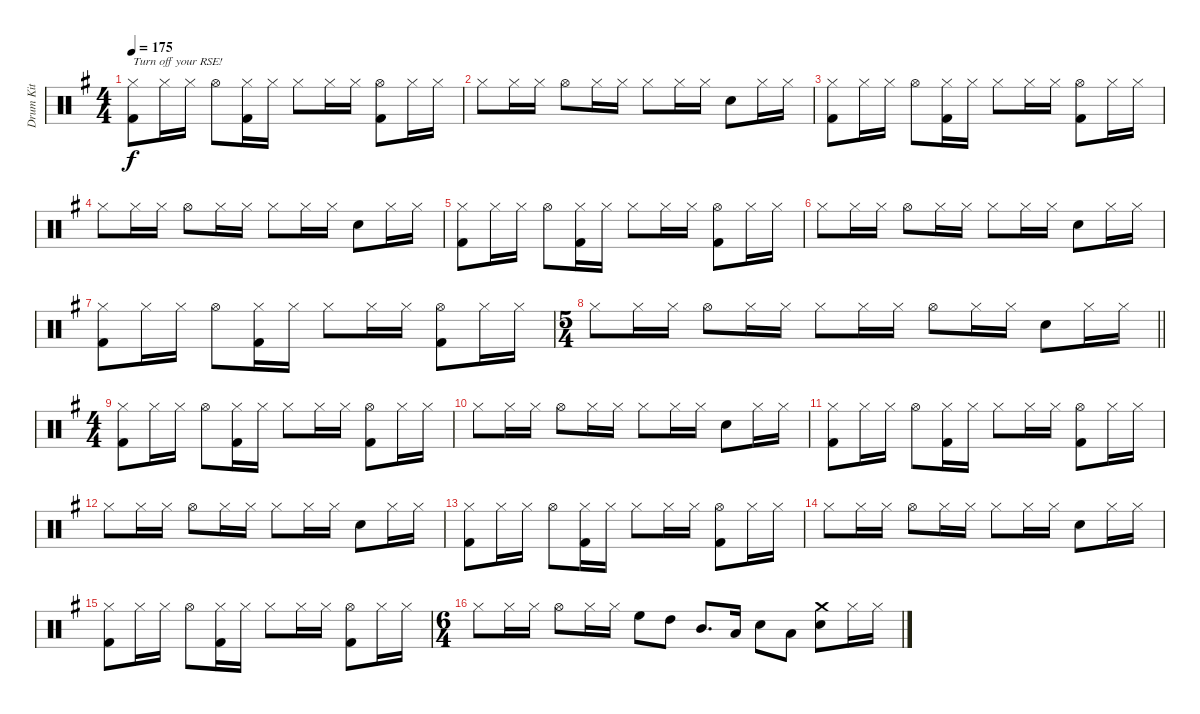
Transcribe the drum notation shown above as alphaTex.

\track ("Drum Kit" "Drum Kit") {instrument percussion}
\staff {score}
\articulation defaults
\ts (4 4)
\tempo 175
\clef neutral
\ks g
("Hi-Hat (closed)" "Kick (hit) 2").8{txt "Turn off your RSE!" dy f} "Hi-Hat (closed)".16 "Hi-Hat (closed)".16 "Hi-Hat (open)".8 ("Hi-Hat (closed)" "Kick (hit) 2").16 "Hi-Hat (closed)".16 "Hi-Hat (closed)".8 "Hi-Hat (closed)".16 "Hi-Hat (closed)".16 ("Hi-Hat (open)" "Kick (hit) 2").8 "Hi-Hat (closed)".16 "Hi-Hat (closed)".16 |
"Hi-Hat (closed)".8 "Hi-Hat (closed)".16 "Hi-Hat (closed)".16 "Hi-Hat (open)".8 "Hi-Hat (closed)".16 "Hi-Hat (closed)".16 "Hi-Hat (closed)".8 "Hi-Hat (closed)".16 "Hi-Hat (closed)".16 "Snare (hit) 2".8 "Hi-Hat (closed)".16 "Hi-Hat (closed)".16 |
("Hi-Hat (closed)" "Kick (hit) 2").8 "Hi-Hat (closed)".16 "Hi-Hat (closed)".16 "Hi-Hat (open)".8 ("Hi-Hat (closed)" "Kick (hit) 2").16 "Hi-Hat (closed)".16 "Hi-Hat (closed)".8 "Hi-Hat (closed)".16 "Hi-Hat (closed)".16 ("Hi-Hat (open)" "Kick (hit) 2").8 "Hi-Hat (closed)".16 "Hi-Hat (closed)".16 |
"Hi-Hat (closed)".8 "Hi-Hat (closed)".16 "Hi-Hat (closed)".16 "Hi-Hat (open)".8 "Hi-Hat (closed)".16 "Hi-Hat (closed)".16 "Hi-Hat (closed)".8 "Hi-Hat (closed)".16 "Hi-Hat (closed)".16 "Snare (hit) 2".8 "Hi-Hat (closed)".16 "Hi-Hat (closed)".16 |
("Hi-Hat (closed)" "Kick (hit) 2").8 "Hi-Hat (closed)".16 "Hi-Hat (closed)".16 "Hi-Hat (open)".8 ("Hi-Hat (closed)" "Kick (hit) 2").16 "Hi-Hat (closed)".16 "Hi-Hat (closed)".8 "Hi-Hat (closed)".16 "Hi-Hat (closed)".16 ("Hi-Hat (open)" "Kick (hit) 2").8 "Hi-Hat (closed)".16 "Hi-Hat (closed)".16 |
"Hi-Hat (closed)".8 "Hi-Hat (closed)".16 "Hi-Hat (closed)".16 "Hi-Hat (open)".8 "Hi-Hat (closed)".16 "Hi-Hat (closed)".16 "Hi-Hat (closed)".8 "Hi-Hat (closed)".16 "Hi-Hat (closed)".16 "Snare (hit) 2".8 "Hi-Hat (closed)".16 "Hi-Hat (closed)".16 |
("Hi-Hat (closed)" "Kick (hit) 2").8 "Hi-Hat (closed)".16 "Hi-Hat (closed)".16 "Hi-Hat (open)".8 ("Hi-Hat (closed)" "Kick (hit) 2").16 "Hi-Hat (closed)".16 "Hi-Hat (closed)".8 "Hi-Hat (closed)".16 "Hi-Hat (closed)".16 ("Hi-Hat (open)" "Kick (hit) 2").8 "Hi-Hat (closed)".16 "Hi-Hat (closed)".16 |
\ts (5 4)
\barLineRight lightlight "Hi-Hat (closed)".8 "Hi-Hat (closed)".16 "Hi-Hat (closed)".16 "Hi-Hat (open)".8 "Hi-Hat (closed)".16 "Hi-Hat (closed)".16 "Hi-Hat (closed)".8 "Hi-Hat (closed)".16 "Hi-Hat (closed)".16 "Hi-Hat (open)".8 "Hi-Hat (closed)".16 "Hi-Hat (closed)".16 "Snare (hit) 2".8 "Hi-Hat (closed)".16 "Hi-Hat (closed)".16
|
\ts (4 4)
("Hi-Hat (closed)" "Kick (hit) 2").8 "Hi-Hat (closed)".16 "Hi-Hat (closed)".16 "Hi-Hat (open)".8 ("Hi-Hat (closed)" "Kick (hit) 2").16 "Hi-Hat (closed)".16 "Hi-Hat (closed)".8 "Hi-Hat (closed)".16 "Hi-Hat (closed)".16 ("Hi-Hat (open)" "Kick (hit) 2").8 "Hi-Hat (closed)".16 "Hi-Hat (closed)".16 |
"Hi-Hat (closed)".8 "Hi-Hat (closed)".16 "Hi-Hat (closed)".16 "Hi-Hat (open)".8 "Hi-Hat (closed)".16 "Hi-Hat (closed)".16 "Hi-Hat (closed)".8 "Hi-Hat (closed)".16 "Hi-Hat (closed)".16 "Snare (hit) 2".8 "Hi-Hat (closed)".16 "Hi-Hat (closed)".16 |
("Hi-Hat (closed)" "Kick (hit) 2").8 "Hi-Hat (closed)".16 "Hi-Hat (closed)".16 "Hi-Hat (open)".8 ("Hi-Hat (closed)" "Kick (hit) 2").16 "Hi-Hat (closed)".16 "Hi-Hat (closed)".8 "Hi-Hat (closed)".16 "Hi-Hat (closed)".16 ("Hi-Hat (open)" "Kick (hit) 2").8 "Hi-Hat (closed)".16 "Hi-Hat (closed)".16 |
"Hi-Hat (closed)".8 "Hi-Hat (closed)".16 "Hi-Hat (closed)".16 "Hi-Hat (open)".8 "Hi-Hat (closed)".16 "Hi-Hat (closed)".16 "Hi-Hat (closed)".8 "Hi-Hat (closed)".16 "Hi-Hat (closed)".16 "Snare (hit) 2".8 "Hi-Hat (closed)".16 "Hi-Hat (closed)".16 |
("Hi-Hat (closed)" "Kick (hit) 2").8 "Hi-Hat (closed)".16 "Hi-Hat (closed)".16 "Hi-Hat (open)".8 ("Hi-Hat (closed)" "Kick (hit) 2").16 "Hi-Hat (closed)".16 "Hi-Hat (closed)".8 "Hi-Hat (closed)".16 "Hi-Hat (closed)".16 ("Hi-Hat (open)" "Kick (hit) 2").8 "Hi-Hat (closed)".16 "Hi-Hat (closed)".16 |
"Hi-Hat (closed)".8 "Hi-Hat (closed)".16 "Hi-Hat (closed)".16 "Hi-Hat (open)".8 "Hi-Hat (closed)".16 "Hi-Hat (closed)".16 "Hi-Hat (closed)".8 "Hi-Hat (closed)".16 "Hi-Hat (closed)".16 "Snare (hit) 2".8 "Hi-Hat (closed)".16 "Hi-Hat (closed)".16 |
("Hi-Hat (closed)" "Kick (hit) 2").8 "Hi-Hat (closed)".16 "Hi-Hat (closed)".16 "Hi-Hat (open)".8 ("Hi-Hat (closed)" "Kick (hit) 2").16 "Hi-Hat (closed)".16 "Hi-Hat (closed)".8 "Hi-Hat (closed)".16 "Hi-Hat (closed)".16 ("Hi-Hat (open)" "Kick (hit) 2").8 "Hi-Hat (closed)".16 "Hi-Hat (closed)".16 |
\ts (6 4)
"Hi-Hat (closed)".8 "Hi-Hat (closed)".16 "Hi-Hat (closed)".16 "Hi-Hat (open)".8 "Hi-Hat (closed)".16 "Hi-Hat (closed)".16 "High Floor Tom (hit)".8 "High Tom (hit)".8 "Mid Tom (hit)".8{d} "Low Tom (hit)".16 "Snare (hit) 2".8 "Low Tom (hit)".8 ("Crash medium (hit)" "Snare (hit) 2").8 "Hi-Hat (closed)".16 "Hi-Hat (closed)".16
